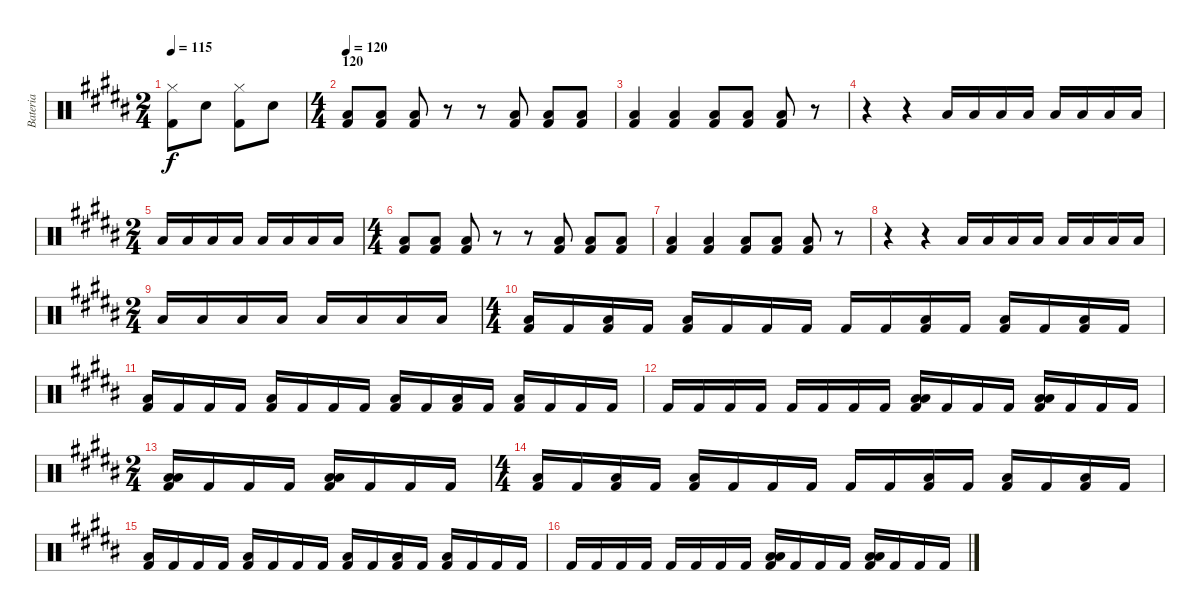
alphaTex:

\track ("Bateria" "Bateria") {instrument percussion}
\staff {score}
\articulation defaults
\ts (2 4)
\tempo 115
\clef neutral
\ks b
("Hi-Hat (closed)" "Kick (hit) 2").8{dy f} "Snare (hit) 2".8 ("Hi-Hat (closed)" "Kick (hit) 2").8 "Snare (hit) 2".8 |
\ts (4 4)
\section ("" "120")
\tempo 120
("Low Tom (hit)" "Kick (hit) 2").8 ("Low Tom (hit)" "Kick (hit) 2").8 ("Low Tom (hit)" "Kick (hit) 2").8 r.8 r.8 ("Low Tom (hit)" "Kick (hit) 2").8 ("Low Tom (hit)" "Kick (hit) 2").8 ("Low Tom (hit)" "Kick (hit) 2").8 |
("Low Tom (hit)" "Kick (hit) 2").4 ("Low Tom (hit)" "Kick (hit) 2").4 ("Low Tom (hit)" "Kick (hit) 2").8 ("Low Tom (hit)" "Kick (hit) 2").8 ("Low Tom (hit)" "Kick (hit) 2").8 r.8 |
r.4 r.4 "Low Tom (hit)".16 "Low Tom (hit)".16 "Low Tom (hit)".16 "Low Tom (hit)".16 "Low Tom (hit)".16 "Low Tom (hit)".16 "Low Tom (hit)".16 "Low Tom (hit)".16 |
\ts (2 4)
"Low Tom (hit)".16 "Low Tom (hit)".16 "Low Tom (hit)".16 "Low Tom (hit)".16 "Low Tom (hit)".16 "Low Tom (hit)".16 "Low Tom (hit)".16 "Low Tom (hit)".16 |
\ts (4 4)
("Low Tom (hit)" "Kick (hit) 2").8 ("Low Tom (hit)" "Kick (hit) 2").8 ("Low Tom (hit)" "Kick (hit) 2").8 r.8 r.8 ("Low Tom (hit)" "Kick (hit) 2").8 ("Low Tom (hit)" "Kick (hit) 2").8 ("Low Tom (hit)" "Kick (hit) 2").8 |
("Low Tom (hit)" "Kick (hit) 2").4 ("Low Tom (hit)" "Kick (hit) 2").4 ("Low Tom (hit)" "Kick (hit) 2").8 ("Low Tom (hit)" "Kick (hit) 2").8 ("Low Tom (hit)" "Kick (hit) 2").8 r.8 |
r.4 r.4 "Low Tom (hit)".16 "Low Tom (hit)".16 "Low Tom (hit)".16 "Low Tom (hit)".16 "Low Tom (hit)".16 "Low Tom (hit)".16 "Low Tom (hit)".16 "Low Tom (hit)".16 |
\ts (2 4)
"Low Tom (hit)".16 "Low Tom (hit)".16 "Low Tom (hit)".16 "Low Tom (hit)".16 "Low Tom (hit)".16 "Low Tom (hit)".16 "Low Tom (hit)".16 "Low Tom (hit)".16 |
\ts (4 4)
("Low Tom (hit)" "Kick (hit) 2").16 "Kick (hit) 2".16 ("Low Tom (hit)" "Kick (hit) 2").16 "Kick (hit) 2".16 ("Low Tom (hit)" "Kick (hit) 2").16 "Kick (hit) 2".16 "Kick (hit) 2".16 "Kick (hit) 2".16 "Kick (hit) 2".16 "Kick (hit) 2".16 ("Low Tom (hit)" "Kick (hit) 2").16 "Kick (hit) 2".16 ("Low Tom (hit)" "Kick (hit) 2").16 "Kick (hit) 2".16 ("Low Tom (hit)" "Kick (hit) 2").16 "Kick (hit) 2".16 |
("Low Tom (hit)" "Kick (hit) 2").16 "Kick (hit) 2".16 "Kick (hit) 2".16 "Kick (hit) 2".16 ("Low Tom (hit)" "Kick (hit) 2").16 "Kick (hit) 2".16 "Kick (hit) 2".16 "Kick (hit) 2".16 ("Low Tom (hit)" "Kick (hit) 2").16 "Kick (hit) 2".16 ("Low Tom (hit)" "Kick (hit) 2").16 "Kick (hit) 2".16 ("Low Tom (hit)" "Kick (hit) 2").16 "Kick (hit) 2".16 "Kick (hit) 2".16 "Kick (hit) 2".16 |
"Kick (hit) 2".16 "Kick (hit) 2".16 "Kick (hit) 2".16 "Kick (hit) 2".16 "Kick (hit) 2".16 "Kick (hit) 2".16 "Kick (hit) 2".16 "Kick (hit) 2".16 ("Low Tom (hit)" "Low Tom (hit)" "Kick (hit) 2").16 "Kick (hit) 2".16 "Kick (hit) 2".16 "Kick (hit) 2".16 ("Low Tom (hit)" "Low Tom (hit)" "Kick (hit) 2").16 "Kick (hit) 2".16 "Kick (hit) 2".16 "Kick (hit) 2".16 |
\ts (2 4)
("Low Tom (hit)" "Low Tom (hit)" "Kick (hit) 2").16 "Kick (hit) 2".16 "Kick (hit) 2".16 "Kick (hit) 2".16 ("Low Tom (hit)" "Low Tom (hit)" "Kick (hit) 2").16 "Kick (hit) 2".16 "Kick (hit) 2".16 "Kick (hit) 2".16 |
\ts (4 4)
("Low Tom (hit)" "Kick (hit) 2").16 "Kick (hit) 2".16 ("Low Tom (hit)" "Kick (hit) 2").16 "Kick (hit) 2".16 ("Low Tom (hit)" "Kick (hit) 2").16 "Kick (hit) 2".16 "Kick (hit) 2".16 "Kick (hit) 2".16 "Kick (hit) 2".16 "Kick (hit) 2".16 ("Low Tom (hit)" "Kick (hit) 2").16 "Kick (hit) 2".16 ("Low Tom (hit)" "Kick (hit) 2").16 "Kick (hit) 2".16 ("Low Tom (hit)" "Kick (hit) 2").16 "Kick (hit) 2".16 |
("Low Tom (hit)" "Kick (hit) 2").16 "Kick (hit) 2".16 "Kick (hit) 2".16 "Kick (hit) 2".16 ("Low Tom (hit)" "Kick (hit) 2").16 "Kick (hit) 2".16 "Kick (hit) 2".16 "Kick (hit) 2".16 ("Low Tom (hit)" "Kick (hit) 2").16 "Kick (hit) 2".16 ("Low Tom (hit)" "Kick (hit) 2").16 "Kick (hit) 2".16 ("Low Tom (hit)" "Kick (hit) 2").16 "Kick (hit) 2".16 "Kick (hit) 2".16 "Kick (hit) 2".16 |
"Kick (hit) 2".16 "Kick (hit) 2".16 "Kick (hit) 2".16 "Kick (hit) 2".16 "Kick (hit) 2".16 "Kick (hit) 2".16 "Kick (hit) 2".16 "Kick (hit) 2".16 ("Low Tom (hit)" "Low Tom (hit)" "Kick (hit) 2").16 "Kick (hit) 2".16 "Kick (hit) 2".16 "Kick (hit) 2".16 ("Low Tom (hit)" "Low Tom (hit)" "Kick (hit) 2").16 "Kick (hit) 2".16 "Kick (hit) 2".16 "Kick (hit) 2".16
